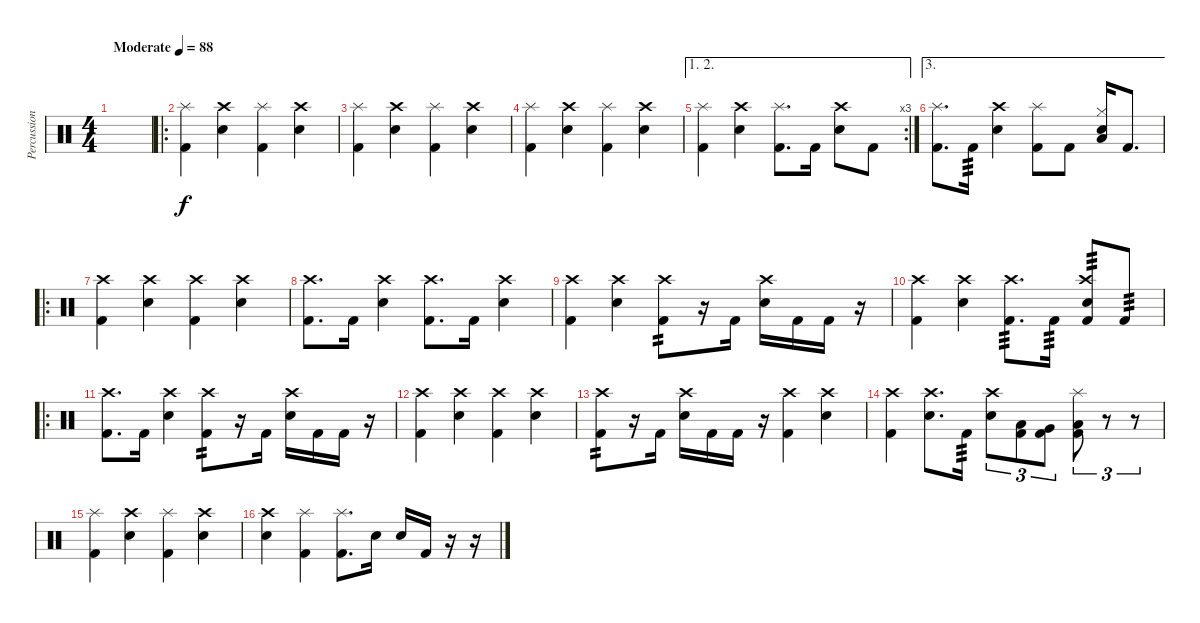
\track ("Percussions" "Percussion") {instrument percussion}
\staff {score}
\articulation defaults
\ts (4 4)
\tempo (88 "Moderate")
\clef neutral
\ks c
|
\ro
("Splash (hit)" "Kick (hit) 2").4 ("Crash high (hit)" "Electric Snare (hit)").4 ("Splash (hit)" "Kick (hit) 2").4 ("Crash high (hit)" "Electric Snare (hit)").4 |
("Splash (hit)" "Kick (hit) 2").4 ("Crash high (hit)" "Electric Snare (hit)").4 ("Splash (hit)" "Kick (hit) 2").4 ("Crash high (hit)" "Electric Snare (hit)").4 |
("Splash (hit)" "Kick (hit) 2").4 ("Crash high (hit)" "Electric Snare (hit)").4 ("Splash (hit)" "Kick (hit) 2").4 ("Crash high (hit)" "Electric Snare (hit)").4 |
\ae (1 2)
\rc 3
("Splash (hit)" "Kick (hit) 2").4 ("Crash high (hit)" "Electric Snare (hit)").4 ("Splash (hit)" "Kick (hit) 2").8{d} "Kick (hit) 2".16 ("Crash high (hit)" "Electric Snare (hit)").8 "Kick (hit) 2".8 |
\ae 3
("Splash (hit)" "Kick (hit) 2").8{d} "Kick (hit) 2".16{tp 3} ("Crash high (hit)" "Electric Snare (hit)").4 ("Splash (hit)" "Kick (hit) 2").8 "Kick (hit) 2".8 ("Hi-Hat (closed)" "Low Floor Tom (hit)" "Electric Snare (hit)").16 "Kick (hit) 2".8{d} |
\ro
("Crash high (hit)" "Kick (hit) 2").4 ("Crash high (hit)" "Electric Snare (hit)").4 ("Crash high (hit)" "Kick (hit) 2").4 ("Crash high (hit)" "Electric Snare (hit)").4 |
("Crash high (hit)" "Kick (hit) 2").8{d} "Kick (hit) 2".16 ("Crash high (hit)" "Electric Snare (hit)").4 ("Crash high (hit)" "Kick (hit) 2").8{d} "Kick (hit) 2".16 ("Crash high (hit)" "Electric Snare (hit)").4 |
("Crash high (hit)" "Kick (hit) 2").4 ("Crash high (hit)" "Electric Snare (hit)").4 ("Crash high (hit)" "Kick (hit) 2").8{tp 2} r.16 "Kick (hit) 2".16 ("Crash high (hit)" "Electric Snare (hit)").16 "Kick (hit) 2".16 "Kick (hit) 2".16 r.16 |
("Crash high (hit)" "Kick (hit) 2").4 ("Crash high (hit)" "Electric Snare (hit)").4 ("Crash high (hit)" "Kick (hit) 2").8{d tp 3} "Kick (hit) 2".16{tp 3} ("Crash high (hit)" "Electric Snare (hit)" "Kick (hit) 2").8{tp 3} "Kick (hit) 2".8{tp 3} |
\ro
("Crash high (hit)" "Kick (hit) 2").8{d} "Kick (hit) 2".16 ("Crash high (hit)" "Electric Snare (hit)").4 ("Crash high (hit)" "Kick (hit) 2").8{tp 2} r.16 "Kick (hit) 2".16 ("Crash high (hit)" "Electric Snare (hit)").16 "Kick (hit) 2".16 "Kick (hit) 2".16 r.16 |
("Crash high (hit)" "Kick (hit) 2").4 ("Crash high (hit)" "Electric Snare (hit)").4 ("Crash high (hit)" "Kick (hit) 2").4 ("Crash high (hit)" "Electric Snare (hit)").4 |
("Crash high (hit)" "Kick (hit) 2").8{tp 2} r.16 "Kick (hit) 2".16 ("Crash high (hit)" "Electric Snare (hit)").16 "Kick (hit) 2".16 "Kick (hit) 2".16 r.16 ("Crash high (hit)" "Kick (hit) 2").4 ("Crash high (hit)" "Electric Snare (hit)").4 |
("Crash high (hit)" "Kick (hit) 2").4 ("Crash high (hit)" "Electric Snare (hit)").8{d} "Kick (hit) 2".16{tp 3} ("Crash high (hit)" "Electric Snare (hit)").8{tu (3 2)} ("Low Tom (hit)" "Kick (hit) 2").8{tu (3 2)} ("Very Low Tom (hit)" "Kick (hit) 2").8{tu (3 2)} ("Splash (hit)" "Low Floor Tom (hit)" "Kick (hit) 2").8{tu (3 2)} r.8{tu (3 2)} r.8{tu (3 2)} |
("Splash (hit)" "Kick (hit) 2").4 ("Crash high (hit)" "Electric Snare (hit)").4 ("Splash (hit)" "Kick (hit) 2").4 ("Crash high (hit)" "Electric Snare (hit)").4 |
("Crash high (hit)" "Electric Snare (hit)").4 ("Splash (hit)" "Kick (hit) 2").4 ("Splash (hit)" "Kick (hit) 2").8{d} "Electric Snare (hit)".16 "Electric Snare (hit)".16 "Kick (hit) 2".16 r.16 r.16
